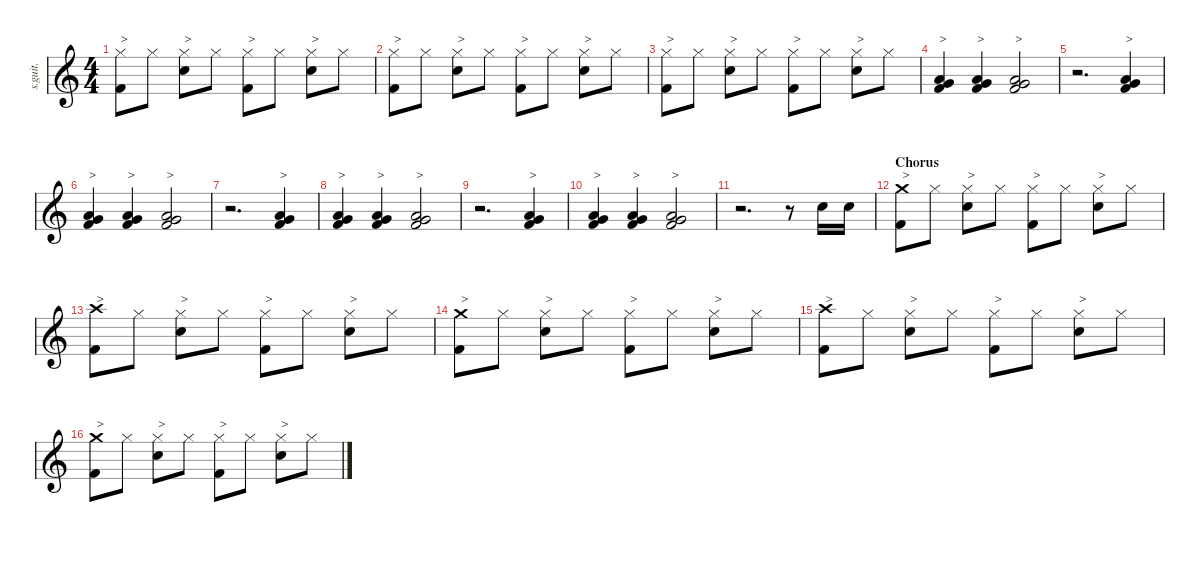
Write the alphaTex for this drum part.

\defaultSystemsLayout 4
\hideDynamics
\bracketExtendMode nobrackets
\track ("Chris Slade" "s.guit.") {instrument percussion}
\staff {score}
\articulation defaults
\ts (4 4)
\tempo (134 hide)
\clef g2
\ks c
("Hi-Hat (closed)" "Kick (hit) 2").8{txt ">" lyrics (0 "") lyrics (1 "") lyrics (2 "") lyrics (3 "") lyrics (4 "") dy f} "Hi-Hat (closed)".8{lyrics (0 "") lyrics (1 "") lyrics (2 "") lyrics (3 "") lyrics (4 "")} ("Hi-Hat (closed)" "Snare (hit) 2").8{txt ">" lyrics (0 "") lyrics (1 "") lyrics (2 "") lyrics (3 "") lyrics (4 "")} "Hi-Hat (closed)".8{lyrics (0 "") lyrics (1 "") lyrics (2 "") lyrics (3 "") lyrics (4 "") dy mf} ("Hi-Hat (closed)" "Kick (hit) 2").8{txt ">" lyrics (0 "") lyrics (1 "") lyrics (2 "") lyrics (3 "") lyrics (4 "") dy ff} "Hi-Hat (closed)".8{lyrics (0 "") lyrics (1 "") lyrics (2 "") lyrics (3 "") lyrics (4 "") dy mf} ("Hi-Hat (closed)" "Snare (hit) 2").8{txt ">" lyrics (0 "") lyrics (1 "") lyrics (2 "") lyrics (3 "") lyrics (4 "") dy f} "Hi-Hat (closed)".8{lyrics (0 "") lyrics (1 "") lyrics (2 "") lyrics (3 "") lyrics (4 "") dy mf} |
("Hi-Hat (closed)" "Kick (hit) 2").8{txt ">" lyrics (0 "") lyrics (1 "") lyrics (2 "") lyrics (3 "") lyrics (4 "") dy f} "Hi-Hat (closed)".8{lyrics (0 "") lyrics (1 "") lyrics (2 "") lyrics (3 "") lyrics (4 "")} ("Hi-Hat (closed)" "Snare (hit) 2").8{txt ">" lyrics (0 "") lyrics (1 "") lyrics (2 "") lyrics (3 "") lyrics (4 "")} "Hi-Hat (closed)".8{lyrics (0 "") lyrics (1 "") lyrics (2 "") lyrics (3 "") lyrics (4 "") dy mf} ("Hi-Hat (closed)" "Kick (hit) 2").8{txt ">" lyrics (0 "") lyrics (1 "") lyrics (2 "") lyrics (3 "") lyrics (4 "") dy ff} "Hi-Hat (closed)".8{lyrics (0 "") lyrics (1 "") lyrics (2 "") lyrics (3 "") lyrics (4 "") dy mf} ("Hi-Hat (closed)" "Snare (hit) 2").8{txt ">" lyrics (0 "") lyrics (1 "") lyrics (2 "") lyrics (3 "") lyrics (4 "") dy f} "Hi-Hat (closed)".8{lyrics (0 "") lyrics (1 "") lyrics (2 "") lyrics (3 "") lyrics (4 "") dy mf} |
("Hi-Hat (closed)" "Kick (hit) 2").8{txt ">" lyrics (0 "") lyrics (1 "") lyrics (2 "") lyrics (3 "") lyrics (4 "") dy f} "Hi-Hat (closed)".8{lyrics (0 "") lyrics (1 "") lyrics (2 "") lyrics (3 "") lyrics (4 "")} ("Hi-Hat (closed)" "Snare (hit) 2").8{txt ">" lyrics (0 "") lyrics (1 "") lyrics (2 "") lyrics (3 "") lyrics (4 "")} "Hi-Hat (closed)".8{lyrics (0 "") lyrics (1 "") lyrics (2 "") lyrics (3 "") lyrics (4 "") dy mf} ("Hi-Hat (closed)" "Kick (hit) 2").8{txt ">" lyrics (0 "") lyrics (1 "") lyrics (2 "") lyrics (3 "") lyrics (4 "") dy ff} "Hi-Hat (closed)".8{lyrics (0 "") lyrics (1 "") lyrics (2 "") lyrics (3 "") lyrics (4 "") dy mf} ("Hi-Hat (closed)" "Snare (hit) 2").8{txt ">" lyrics (0 "") lyrics (1 "") lyrics (2 "") lyrics (3 "") lyrics (4 "") dy f} "Hi-Hat (closed)".8{lyrics (0 "") lyrics (1 "") lyrics (2 "") lyrics (3 "") lyrics (4 "") dy mf} |
("Low Floor Tom (hit)" "Kick (hit) 2" "Very Low Tom (hit)").4{txt ">" lyrics (0 "") lyrics (1 "") lyrics (2 "") lyrics (3 "") lyrics (4 "") dy ff} ("Low Floor Tom (hit)" "Kick (hit) 2" "Very Low Tom (hit)").4{txt ">" lyrics (0 "") lyrics (1 "") lyrics (2 "") lyrics (3 "") lyrics (4 "")} ("Low Floor Tom (hit)" "Kick (hit) 2" "Very Low Tom (hit)").2{txt ">" lyrics (0 "") lyrics (1 "") lyrics (2 "") lyrics (3 "") lyrics (4 "")} |
r.2{d} ("Low Floor Tom (hit)" "Kick (hit) 2" "Very Low Tom (hit)").4{txt ">" lyrics (0 "") lyrics (1 "") lyrics (2 "") lyrics (3 "") lyrics (4 "")} |
("Low Floor Tom (hit)" "Kick (hit) 2" "Very Low Tom (hit)").4{txt ">" lyrics (0 "") lyrics (1 "") lyrics (2 "") lyrics (3 "") lyrics (4 "")} ("Low Floor Tom (hit)" "Kick (hit) 2" "Very Low Tom (hit)").4{txt ">" lyrics (0 "") lyrics (1 "") lyrics (2 "") lyrics (3 "") lyrics (4 "")} ("Low Floor Tom (hit)" "Kick (hit) 2" "Very Low Tom (hit)").2{txt ">" lyrics (0 "") lyrics (1 "") lyrics (2 "") lyrics (3 "") lyrics (4 "")} |
r.2{d} ("Low Floor Tom (hit)" "Kick (hit) 2" "Very Low Tom (hit)").4{txt ">" lyrics (0 "") lyrics (1 "") lyrics (2 "") lyrics (3 "") lyrics (4 "")} |
("Low Floor Tom (hit)" "Kick (hit) 2" "Very Low Tom (hit)").4{txt ">" lyrics (0 "") lyrics (1 "") lyrics (2 "") lyrics (3 "") lyrics (4 "")} ("Low Floor Tom (hit)" "Kick (hit) 2" "Very Low Tom (hit)").4{txt ">" lyrics (0 "") lyrics (1 "") lyrics (2 "") lyrics (3 "") lyrics (4 "")} ("Low Floor Tom (hit)" "Kick (hit) 2" "Very Low Tom (hit)").2{txt ">" lyrics (0 "") lyrics (1 "") lyrics (2 "") lyrics (3 "") lyrics (4 "")} |
r.2{d} ("Low Floor Tom (hit)" "Kick (hit) 2" "Very Low Tom (hit)").4{txt ">" lyrics (0 "") lyrics (1 "") lyrics (2 "") lyrics (3 "") lyrics (4 "")} |
("Low Floor Tom (hit)" "Kick (hit) 2" "Very Low Tom (hit)").4{txt ">" lyrics (0 "") lyrics (1 "") lyrics (2 "") lyrics (3 "") lyrics (4 "")} ("Low Floor Tom (hit)" "Kick (hit) 2" "Very Low Tom (hit)").4{txt ">" lyrics (0 "") lyrics (1 "") lyrics (2 "") lyrics (3 "") lyrics (4 "")} ("Low Floor Tom (hit)" "Kick (hit) 2" "Very Low Tom (hit)").2{txt ">" lyrics (0 "") lyrics (1 "") lyrics (2 "") lyrics (3 "") lyrics (4 "")} |
r.2{d} r.8 "Snare (hit) 2".16{lyrics (0 "") lyrics (1 "") lyrics (2 "") lyrics (3 "") lyrics (4 "") dy f} "Snare (hit) 2".16{lyrics (0 "") lyrics (1 "") lyrics (2 "") lyrics (3 "") lyrics (4 "")} |
\section ("" "Chorus")
("Crash medium (hit)" "Kick (hit) 2").8{txt ">" lyrics (0 "") lyrics (1 "") lyrics (2 "") lyrics (3 "") lyrics (4 "") dy ff} "Hi-Hat (closed)".8{lyrics (0 "") lyrics (1 "") lyrics (2 "") lyrics (3 "") lyrics (4 "") dy f} ("Hi-Hat (closed)" "Snare (hit) 2").8{txt ">" lyrics (0 "") lyrics (1 "") lyrics (2 "") lyrics (3 "") lyrics (4 "")} "Hi-Hat (closed)".8{lyrics (0 "") lyrics (1 "") lyrics (2 "") lyrics (3 "") lyrics (4 "") dy mf} ("Hi-Hat (closed)" "Kick (hit) 2").8{txt ">" lyrics (0 "") lyrics (1 "") lyrics (2 "") lyrics (3 "") lyrics (4 "") dy ff} "Hi-Hat (closed)".8{lyrics (0 "") lyrics (1 "") lyrics (2 "") lyrics (3 "") lyrics (4 "") dy mf} ("Hi-Hat (closed)" "Snare (hit) 2").8{txt ">" lyrics (0 "") lyrics (1 "") lyrics (2 "") lyrics (3 "") lyrics (4 "") dy f} "Hi-Hat (closed)".8{lyrics (0 "") lyrics (1 "") lyrics (2 "") lyrics (3 "") lyrics (4 "") dy mf} |
("Crash high (hit)" "Kick (hit) 2").8{txt ">" lyrics (0 "") lyrics (1 "") lyrics (2 "") lyrics (3 "") lyrics (4 "") dy f} "Hi-Hat (closed)".8{lyrics (0 "") lyrics (1 "") lyrics (2 "") lyrics (3 "") lyrics (4 "")} ("Hi-Hat (closed)" "Snare (hit) 2").8{txt ">" lyrics (0 "") lyrics (1 "") lyrics (2 "") lyrics (3 "") lyrics (4 "")} "Hi-Hat (closed)".8{lyrics (0 "") lyrics (1 "") lyrics (2 "") lyrics (3 "") lyrics (4 "") dy mf} ("Hi-Hat (closed)" "Kick (hit) 2").8{txt ">" lyrics (0 "") lyrics (1 "") lyrics (2 "") lyrics (3 "") lyrics (4 "") dy ff} "Hi-Hat (closed)".8{lyrics (0 "") lyrics (1 "") lyrics (2 "") lyrics (3 "") lyrics (4 "") dy mf} ("Hi-Hat (closed)" "Snare (hit) 2").8{txt ">" lyrics (0 "") lyrics (1 "") lyrics (2 "") lyrics (3 "") lyrics (4 "") dy f} "Hi-Hat (closed)".8{lyrics (0 "") lyrics (1 "") lyrics (2 "") lyrics (3 "") lyrics (4 "") dy mf} |
("Crash medium (hit)" "Kick (hit) 2").8{txt ">" lyrics (0 "") lyrics (1 "") lyrics (2 "") lyrics (3 "") lyrics (4 "") dy ff} "Hi-Hat (closed)".8{lyrics (0 "") lyrics (1 "") lyrics (2 "") lyrics (3 "") lyrics (4 "") dy f} ("Hi-Hat (closed)" "Snare (hit) 2").8{txt ">" lyrics (0 "") lyrics (1 "") lyrics (2 "") lyrics (3 "") lyrics (4 "")} "Hi-Hat (closed)".8{lyrics (0 "") lyrics (1 "") lyrics (2 "") lyrics (3 "") lyrics (4 "") dy mf} ("Hi-Hat (closed)" "Kick (hit) 2").8{txt ">" lyrics (0 "") lyrics (1 "") lyrics (2 "") lyrics (3 "") lyrics (4 "") dy ff} "Hi-Hat (closed)".8{lyrics (0 "") lyrics (1 "") lyrics (2 "") lyrics (3 "") lyrics (4 "") dy mf} ("Hi-Hat (closed)" "Snare (hit) 2").8{txt ">" lyrics (0 "") lyrics (1 "") lyrics (2 "") lyrics (3 "") lyrics (4 "") dy f} "Hi-Hat (closed)".8{lyrics (0 "") lyrics (1 "") lyrics (2 "") lyrics (3 "") lyrics (4 "") dy mf} |
("Crash high (hit)" "Kick (hit) 2").8{txt ">" lyrics (0 "") lyrics (1 "") lyrics (2 "") lyrics (3 "") lyrics (4 "") dy f} "Hi-Hat (closed)".8{lyrics (0 "") lyrics (1 "") lyrics (2 "") lyrics (3 "") lyrics (4 "")} ("Hi-Hat (closed)" "Snare (hit) 2").8{txt ">" lyrics (0 "") lyrics (1 "") lyrics (2 "") lyrics (3 "") lyrics (4 "")} "Hi-Hat (closed)".8{lyrics (0 "") lyrics (1 "") lyrics (2 "") lyrics (3 "") lyrics (4 "") dy mf} ("Hi-Hat (closed)" "Kick (hit) 2").8{txt ">" lyrics (0 "") lyrics (1 "") lyrics (2 "") lyrics (3 "") lyrics (4 "") dy ff} "Hi-Hat (closed)".8{lyrics (0 "") lyrics (1 "") lyrics (2 "") lyrics (3 "") lyrics (4 "") dy mf} ("Hi-Hat (closed)" "Snare (hit) 2").8{txt ">" lyrics (0 "") lyrics (1 "") lyrics (2 "") lyrics (3 "") lyrics (4 "") dy f} "Hi-Hat (closed)".8{lyrics (0 "") lyrics (1 "") lyrics (2 "") lyrics (3 "") lyrics (4 "") dy mf} |
("Crash medium (hit)" "Kick (hit) 2").8{txt ">" lyrics (0 "") lyrics (1 "") lyrics (2 "") lyrics (3 "") lyrics (4 "") dy ff} "Hi-Hat (closed)".8{lyrics (0 "") lyrics (1 "") lyrics (2 "") lyrics (3 "") lyrics (4 "") dy f} ("Hi-Hat (closed)" "Snare (hit) 2").8{txt ">" lyrics (0 "") lyrics (1 "") lyrics (2 "") lyrics (3 "") lyrics (4 "")} "Hi-Hat (closed)".8{lyrics (0 "") lyrics (1 "") lyrics (2 "") lyrics (3 "") lyrics (4 "") dy mf} ("Hi-Hat (closed)" "Kick (hit) 2").8{txt ">" lyrics (0 "") lyrics (1 "") lyrics (2 "") lyrics (3 "") lyrics (4 "") dy ff} "Hi-Hat (closed)".8{lyrics (0 "") lyrics (1 "") lyrics (2 "") lyrics (3 "") lyrics (4 "") dy mf} ("Hi-Hat (closed)" "Snare (hit) 2").8{txt ">" lyrics (0 "") lyrics (1 "") lyrics (2 "") lyrics (3 "") lyrics (4 "") dy f} "Hi-Hat (closed)".8{lyrics (0 "") lyrics (1 "") lyrics (2 "") lyrics (3 "") lyrics (4 "") dy mf}
